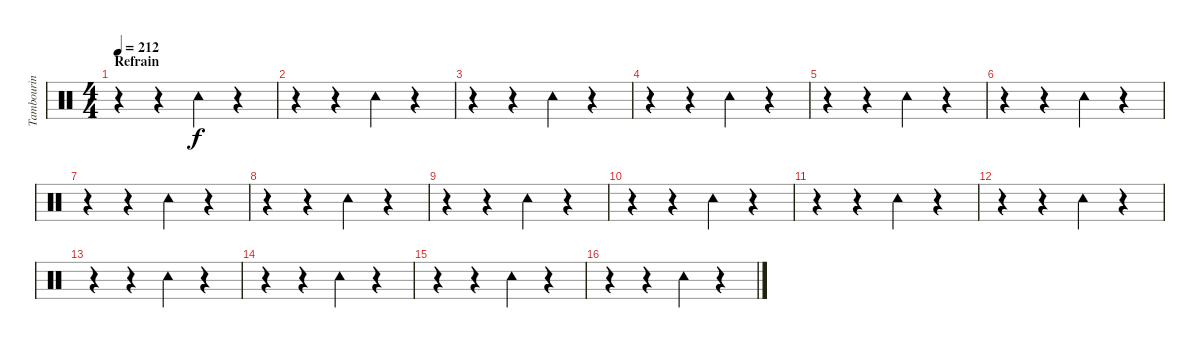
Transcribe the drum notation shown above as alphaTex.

\track ("Tambourin" "Tambourin") {instrument percussion}
\staff {score}
\articulation defaults
\ts (4 4)
\section ("" "Refrain")
\tempo 212
\clef neutral
\ks c
r.4{dy f} r.4 "Tambourine (hit)".4 r.4 |
r.4 r.4 "Tambourine (hit)".4 r.4 |
r.4 r.4 "Tambourine (hit)".4 r.4 |
r.4 r.4 "Tambourine (hit)".4 r.4 |
r.4 r.4 "Tambourine (hit)".4 r.4 |
r.4 r.4 "Tambourine (hit)".4 r.4 |
r.4 r.4 "Tambourine (hit)".4 r.4 |
r.4 r.4 "Tambourine (hit)".4 r.4 |
r.4 r.4 "Tambourine (hit)".4 r.4 |
r.4 r.4 "Tambourine (hit)".4 r.4 |
r.4 r.4 "Tambourine (hit)".4 r.4 |
r.4 r.4 "Tambourine (hit)".4 r.4 |
r.4 r.4 "Tambourine (hit)".4 r.4 |
r.4 r.4 "Tambourine (hit)".4 r.4 |
r.4 r.4 "Tambourine (hit)".4 r.4 |
r.4 r.4 "Tambourine (hit)".4 r.4
